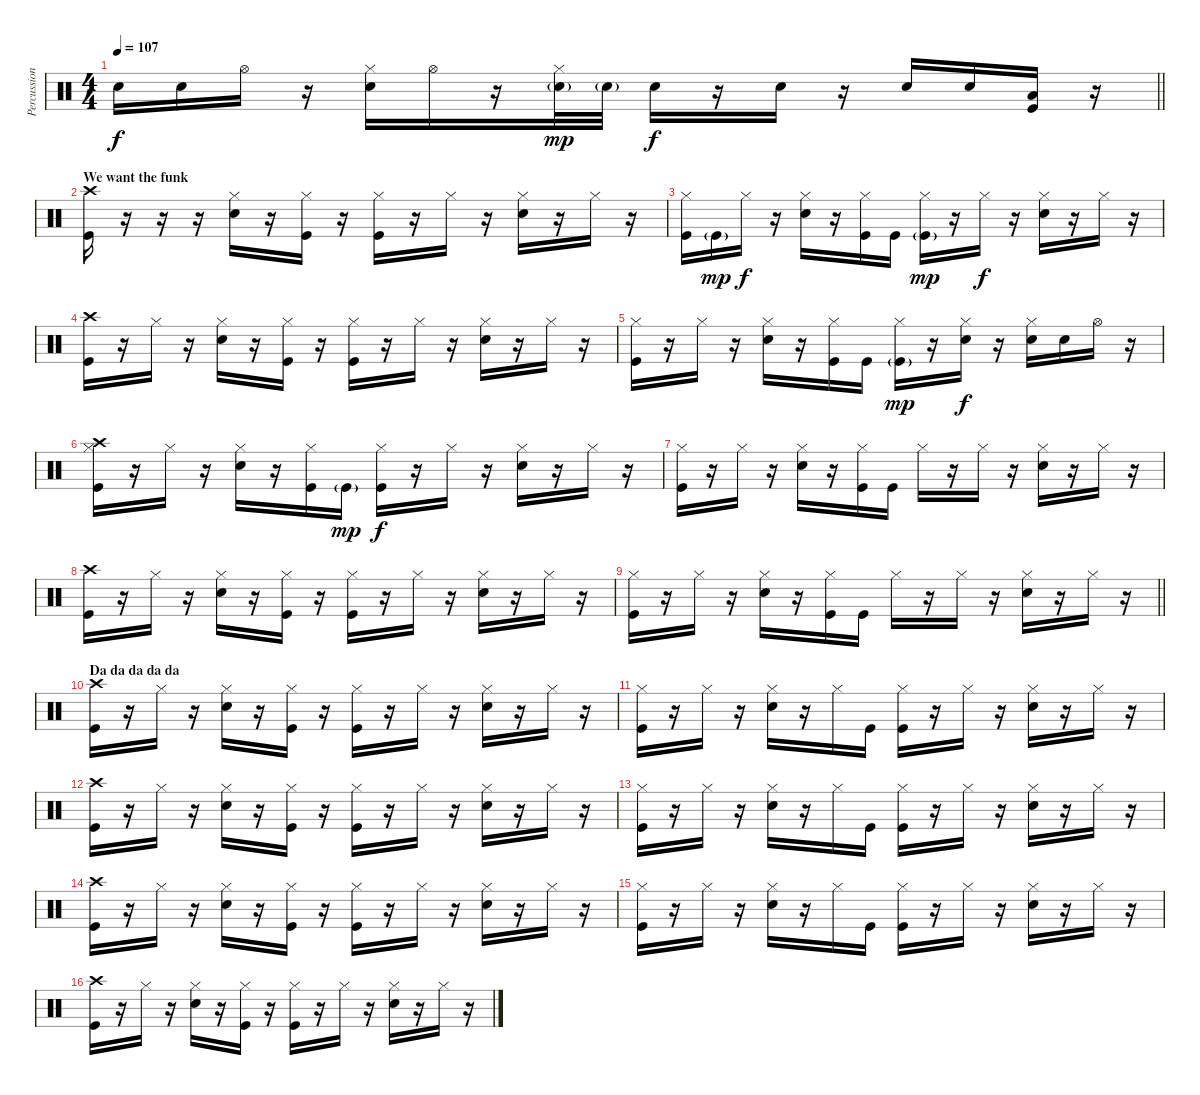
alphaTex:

\track ("Percussion" "Percussion") {instrument percussion}
\staff {score}
\articulation defaults
\ts (4 4)
\tempo 107
\clef neutral
\barLineRight lightlight
\ks c "Snare (hit) 2".16{dy f} "Snare (hit) 2".16 "Hi-Hat (open)".16
r.16 ("Hi-Hat (closed)" "Snare (hit) 2").16 "Hi-Hat (open)".16 r.16 ("Hi-Hat (closed)" "Snare (hit) 2"{g}).32{dy mp} "Snare (hit) 2"{g}.32 "Snare (hit) 2".16{dy f} r.16 "Snare (hit) 2".16 r.16 "Snare (hit) 2".16 "Snare (hit) 2".16 ("Low Tom (hit)" "Kick (hit)").16 r.16 |
\section ("" "We want the funk")
("Crash high (hit)" "Kick (hit)").16 r.16 r.16 r.16 ("Hi-Hat (closed)" "Snare (hit) 2").16 r.16 ("Hi-Hat (closed)" "Kick (hit)").16 r.16 ("Hi-Hat (closed)" "Kick (hit)").16 r.16 "Hi-Hat (closed)".16 r.16 ("Hi-Hat (closed)" "Snare (hit) 2").16 r.16 "Hi-Hat (closed)".16 r.16 |
("Hi-Hat (closed)" "Kick (hit)").16 "Kick (hit)"{g}.16{dy mp} "Hi-Hat (closed)".16{dy f} r.16 ("Hi-Hat (closed)" "Snare (hit) 2").16 r.16 ("Hi-Hat (closed)" "Kick (hit)").16 "Kick (hit)".16 ("Hi-Hat (closed)" "Kick (hit)"{g}).16{dy mp} r.16 "Hi-Hat (closed)".16{dy f} r.16 ("Hi-Hat (closed)" "Snare (hit) 2").16 r.16 "Hi-Hat (closed)".16 r.16 |
("Crash high (hit)" "Kick (hit)").16 r.16 "Hi-Hat (closed)".16 r.16 ("Hi-Hat (closed)" "Snare (hit) 2").16 r.16 ("Hi-Hat (closed)" "Kick (hit)").16 r.16 ("Hi-Hat (closed)" "Kick (hit)").16 r.16 "Hi-Hat (closed)".16 r.16 ("Hi-Hat (closed)" "Snare (hit) 2").16 r.16 "Hi-Hat (closed)".16 r.16 |
("Hi-Hat (closed)" "Kick (hit)").16 r.16 "Hi-Hat (closed)".16 r.16 ("Hi-Hat (closed)" "Snare (hit) 2").16 r.16 ("Hi-Hat (closed)" "Kick (hit)").16 "Kick (hit)".16 ("Hi-Hat (closed)" "Kick (hit)"{g}).16{dy mp} r.16 ("Hi-Hat (closed)" "Snare (hit) 2").16{dy f} r.16 ("Hi-Hat (closed)" "Snare (hit) 2").16 "Snare (hit) 2".16 "Hi-Hat (open)".16 r.16 |
("Crash high (hit)" "Hi-Hat (closed)" "Kick (hit)").16 r.16 "Hi-Hat (closed)".16 r.16 ("Hi-Hat (closed)" "Snare (hit) 2").16 r.16 ("Hi-Hat (closed)" "Kick (hit)").16 "Kick (hit)"{g}.16{dy mp} ("Hi-Hat (closed)" "Kick (hit)").16{dy f} r.16 "Hi-Hat (closed)".16 r.16 ("Hi-Hat (closed)" "Snare (hit) 2").16 r.16 "Hi-Hat (closed)".16 r.16 |
("Hi-Hat (closed)" "Kick (hit)").16 r.16 "Hi-Hat (closed)".16 r.16 ("Hi-Hat (closed)" "Snare (hit) 2").16 r.16 ("Hi-Hat (closed)" "Kick (hit)").16 "Kick (hit)".16 "Hi-Hat (closed)".16 r.16 "Hi-Hat (closed)".16 r.16 ("Hi-Hat (closed)" "Snare (hit) 2").16 r.16 "Hi-Hat (closed)".16 r.16 |
("Crash high (hit)" "Kick (hit)").16 r.16 "Hi-Hat (closed)".16 r.16 ("Hi-Hat (closed)" "Snare (hit) 2").16 r.16 ("Hi-Hat (closed)" "Kick (hit)").16 r.16 ("Hi-Hat (closed)" "Kick (hit)").16 r.16 "Hi-Hat (closed)".16 r.16 ("Hi-Hat (closed)" "Snare (hit) 2").16 r.16 "Hi-Hat (closed)".16 r.16 |
\barLineRight lightlight
("Hi-Hat (closed)" "Kick (hit)").16 r.16 "Hi-Hat (closed)".16 r.16 ("Hi-Hat (closed)" "Snare (hit) 2").16 r.16 ("Hi-Hat (closed)" "Kick (hit)").16 "Kick (hit)".16 "Hi-Hat (closed)".16 r.16 "Hi-Hat (closed)".16 r.16 ("Hi-Hat (closed)" "Snare (hit) 2").16 r.16 "Hi-Hat (closed)".16 r.16 |
\section ("" "Da da da da da")
("Crash high (hit)" "Kick (hit)").16 r.16 "Hi-Hat (closed)".16 r.16 ("Hi-Hat (closed)" "Snare (hit) 2").16 r.16 ("Hi-Hat (closed)" "Kick (hit)").16 r.16 ("Hi-Hat (closed)" "Kick (hit)").16 r.16 "Hi-Hat (closed)".16 r.16 ("Hi-Hat (closed)" "Snare (hit) 2").16 r.16 "Hi-Hat (closed)".16 r.16 |
("Hi-Hat (closed)" "Kick (hit)").16 r.16 "Hi-Hat (closed)".16 r.16 ("Hi-Hat (closed)" "Snare (hit) 2").16 r.16 "Hi-Hat (closed)".16 "Kick (hit)".16 ("Hi-Hat (closed)" "Kick (hit)").16 r.16 "Hi-Hat (closed)".16 r.16 ("Hi-Hat (closed)" "Snare (hit) 2").16 r.16 "Hi-Hat (closed)".16 r.16 |
("Crash high (hit)" "Kick (hit)").16 r.16 "Hi-Hat (closed)".16 r.16 ("Hi-Hat (closed)" "Snare (hit) 2").16 r.16 ("Hi-Hat (closed)" "Kick (hit)").16 r.16 ("Hi-Hat (closed)" "Kick (hit)").16 r.16 "Hi-Hat (closed)".16 r.16 ("Hi-Hat (closed)" "Snare (hit) 2").16 r.16 "Hi-Hat (closed)".16 r.16 |
("Hi-Hat (closed)" "Kick (hit)").16 r.16 "Hi-Hat (closed)".16 r.16 ("Hi-Hat (closed)" "Snare (hit) 2").16 r.16 "Hi-Hat (closed)".16 "Kick (hit)".16 ("Hi-Hat (closed)" "Kick (hit)").16 r.16 "Hi-Hat (closed)".16 r.16 ("Hi-Hat (closed)" "Snare (hit) 2").16 r.16 "Hi-Hat (closed)".16 r.16 |
("Crash high (hit)" "Kick (hit)").16 r.16 "Hi-Hat (closed)".16 r.16 ("Hi-Hat (closed)" "Snare (hit) 2").16 r.16 ("Hi-Hat (closed)" "Kick (hit)").16 r.16 ("Hi-Hat (closed)" "Kick (hit)").16 r.16 "Hi-Hat (closed)".16 r.16 ("Hi-Hat (closed)" "Snare (hit) 2").16 r.16 "Hi-Hat (closed)".16 r.16 |
("Hi-Hat (closed)" "Kick (hit)").16 r.16 "Hi-Hat (closed)".16 r.16 ("Hi-Hat (closed)" "Snare (hit) 2").16 r.16 "Hi-Hat (closed)".16 "Kick (hit)".16 ("Hi-Hat (closed)" "Kick (hit)").16 r.16 "Hi-Hat (closed)".16 r.16 ("Hi-Hat (closed)" "Snare (hit) 2").16 r.16 "Hi-Hat (closed)".16 r.16 |
("Crash high (hit)" "Kick (hit)").16 r.16 "Hi-Hat (closed)".16 r.16 ("Hi-Hat (closed)" "Snare (hit) 2").16 r.16 ("Hi-Hat (closed)" "Kick (hit)").16 r.16 ("Hi-Hat (closed)" "Kick (hit)").16 r.16 "Hi-Hat (closed)".16 r.16 ("Hi-Hat (closed)" "Snare (hit) 2").16 r.16 "Hi-Hat (closed)".16 r.16
